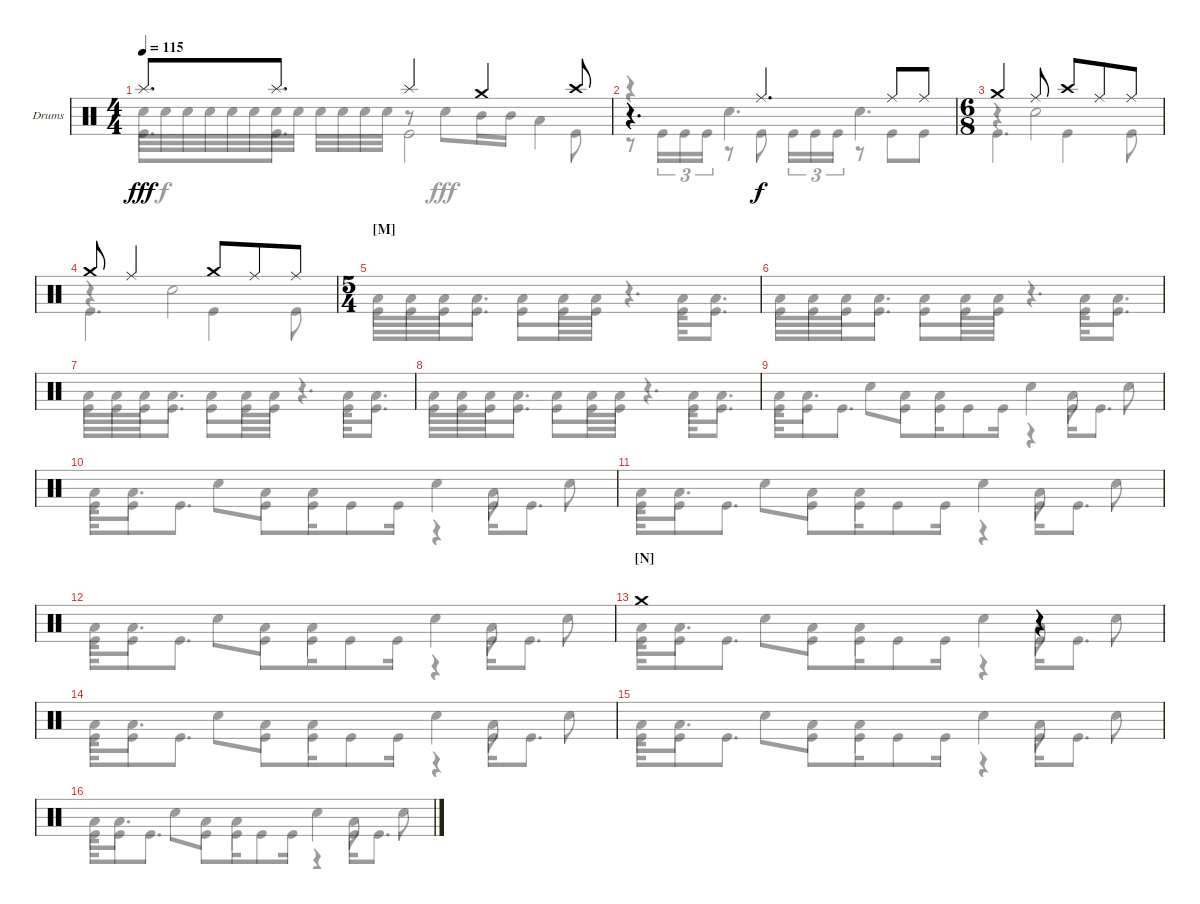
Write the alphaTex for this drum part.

\defaultSystemsLayout 4
\bracketExtendMode groupsimilarinstruments
\firstSystemTrackNameOrientation horizontal
\otherSystemsTrackNameOrientation horizontal
\track ("Drumkit" "Drums") {instrument percussion}
\staff {score}
\articulation defaults
\voice
\ts (4 4)
\tempo 115
\clef neutral
\ks c "Splash (hit)".8{d dy fff} "Splash (hit)".8{d} "Splash (hit)".4 "Crash medium (hit)".4 "Crash high (hit)".8
|
r.4{d} "Ride (middle)".4{d dy f} "Ride (middle)".8 "Ride (middle)".8 |
\ts (6 8)
"Crash medium (hit)".4 "Ride (middle)".8 "Crash high (hit)".8 "Ride (middle)".8 "Ride (middle)".8 |
"Crash medium (hit)".8 "Ride (middle)".4 "Crash medium (hit)".8 "Ride (middle)".8 "Ride (middle)".8 |
\ts (5 4)
\beaming (8 2 4 3 1)
\section ("M" "")
|
|
|
|
|
|
|
|
\section ("N" "")
"Crash medium (hit)".1 r.4 |
|
|
\voice
\clef neutral
\ottava regular
\simile none
\ks c "Snare (hit) 2".32{dy fff} "Snare (hit) 2".32{dy f} "Snare (hit) 2".32 "Snare (hit) 2".32 "Snare (hit) 2".32 "Snare (hit) 2".32 "Snare (hit) 2".32 "Snare (hit) 2".32 "Snare (hit) 2".32 "Snare (hit) 2".32 "Snare (hit) 2".32 "Snare (hit) 2".32
r.8 "Snare (hit) 2".8{dy fff} "Mid Tom (hit)".16 "Mid Tom (hit)".16 "Low Tom (hit)".4 |
r.4 "Snare (hit) 2".4{d} "Snare (hit) 2".4{d} |
r.4 "Snare (hit) 2".2 |
r.4 "Snare (hit) 2".2 |
"Low Tom (hit)".16 "Low Tom (hit)".16 "Low Tom (hit)".16 "Low Tom (hit)".8{d} "Low Tom (hit)".8 "Low Tom (hit)".16 "Low Tom (hit)".16 r.4{d} "Low Tom (hit)".16 "Low Tom (hit)".8{d} |
"Low Tom (hit)".16 "Low Tom (hit)".16 "Low Tom (hit)".16 "Low Tom (hit)".8{d} "Low Tom (hit)".8 "Low Tom (hit)".16 "Low Tom (hit)".16 r.4{d} "Low Tom (hit)".16 "Low Tom (hit)".8{d} |
"Low Tom (hit)".16 "Low Tom (hit)".16 "Low Tom (hit)".16 "Low Tom (hit)".8{d} "Low Tom (hit)".8 "Low Tom (hit)".16 "Low Tom (hit)".16 r.4{d} "Low Tom (hit)".16 "Low Tom (hit)".8{d} |
"Low Tom (hit)".16 "Low Tom (hit)".16 "Low Tom (hit)".16 "Low Tom (hit)".8{d} "Low Tom (hit)".8 "Low Tom (hit)".16 "Low Tom (hit)".16 r.4{d} "Low Tom (hit)".16 "Low Tom (hit)".8{d} |
"Low Tom (hit)".16 "Low Tom (hit)".8{d} "Snare (hit) 2".8 "Low Tom (hit)".8 "Low Tom (hit)".4 "Snare (hit) 2".4 "Low Tom (hit)".8 "Snare (hit) 2".8 |
"Low Tom (hit)".16 "Low Tom (hit)".8{d} "Snare (hit) 2".8 "Low Tom (hit)".8 "Low Tom (hit)".4 "Snare (hit) 2".4 "Low Tom (hit)".8 "Snare (hit) 2".8 |
"Low Tom (hit)".16 "Low Tom (hit)".8{d} "Snare (hit) 2".8 "Low Tom (hit)".8 "Low Tom (hit)".4 "Snare (hit) 2".4 "Low Tom (hit)".8 "Snare (hit) 2".8 |
"Low Tom (hit)".16 "Low Tom (hit)".8{d} "Snare (hit) 2".8 "Low Tom (hit)".8 "Low Tom (hit)".4 "Snare (hit) 2".4 "Low Tom (hit)".8 "Snare (hit) 2".8 |
"Low Tom (hit)".16 "Low Tom (hit)".8{d} "Snare (hit) 2".8 "Low Tom (hit)".8 "Low Tom (hit)".4 "Snare (hit) 2".4 "Low Tom (hit)".8 "Snare (hit) 2".8 |
"Low Tom (hit)".16 "Low Tom (hit)".8{d} "Snare (hit) 2".8 "Low Tom (hit)".8 "Low Tom (hit)".4 "Snare (hit) 2".4 "Low Tom (hit)".8 "Snare (hit) 2".8 |
"Low Tom (hit)".16 "Low Tom (hit)".8{d} "Snare (hit) 2".8 "Low Tom (hit)".8 "Low Tom (hit)".4 "Snare (hit) 2".4 "Low Tom (hit)".8 "Snare (hit) 2".8 |
"Low Tom (hit)".16 "Low Tom (hit)".8{d} "Snare (hit) 2".8 "Low Tom (hit)".8 "Low Tom (hit)".4 "Snare (hit) 2".4 "Low Tom (hit)".8 "Snare (hit) 2".8
\voice
\clef neutral
\ottava regular
\simile none
\ks c "Kick (hit)".8{d dy fff} "Kick (hit)".8{d} "Kick (hit)".2 "Kick (hit)".8
|
r.8 "Kick (hit)".16{tu (3 2)} "Kick (hit)".16{tu (3 2)} "Kick (hit)".16{tu (3 2)} r.8 "Kick (hit)".8 "Kick (hit)".16{tu (3 2)} "Kick (hit)".16{tu (3 2)} "Kick (hit)".16{tu (3 2)} r.8 "Kick (hit)".8 "Kick (hit)".8 |
"Kick (hit)".4{d} "Kick (hit)".4 "Kick (hit)".8 |
"Kick (hit)".4{d} "Kick (hit)".4 "Kick (hit)".8 |
"Kick (hit)".16 "Kick (hit)".16 "Kick (hit)".16 "Kick (hit)".8{d} "Kick (hit)".8 "Kick (hit)".16 "Kick (hit)".16 r.4{d} "Kick (hit)".16 "Kick (hit)".8{d} |
"Kick (hit)".16 "Kick (hit)".16 "Kick (hit)".16 "Kick (hit)".8{d} "Kick (hit)".8 "Kick (hit)".16 "Kick (hit)".16 r.4{d} "Kick (hit)".16 "Kick (hit)".8{d} |
"Kick (hit)".16 "Kick (hit)".16 "Kick (hit)".16 "Kick (hit)".8{d} "Kick (hit)".8 "Kick (hit)".16 "Kick (hit)".16 r.4{d} "Kick (hit)".16 "Kick (hit)".8{d} |
"Kick (hit)".16 "Kick (hit)".16 "Kick (hit)".16 "Kick (hit)".8{d} "Kick (hit)".8 "Kick (hit)".16 "Kick (hit)".16 r.4{d} "Kick (hit)".16 "Kick (hit)".8{d} |
"Kick (hit)".16 "Kick (hit)".8 "Kick (hit)".8{d} "Kick (hit)".8 "Kick (hit)".16 "Kick (hit)".8 "Kick (hit)".16 r.4 "Kick (hit)".16 "Kick (hit)".8{d} |
"Kick (hit)".16 "Kick (hit)".8 "Kick (hit)".8{d} "Kick (hit)".8 "Kick (hit)".16 "Kick (hit)".8 "Kick (hit)".16 r.4 "Kick (hit)".16 "Kick (hit)".8{d} |
"Kick (hit)".16 "Kick (hit)".8 "Kick (hit)".8{d} "Kick (hit)".8 "Kick (hit)".16 "Kick (hit)".8 "Kick (hit)".16 r.4 "Kick (hit)".16 "Kick (hit)".8{d} |
"Kick (hit)".16 "Kick (hit)".8 "Kick (hit)".8{d} "Kick (hit)".8 "Kick (hit)".16 "Kick (hit)".8 "Kick (hit)".16 r.4 "Kick (hit)".16 "Kick (hit)".8{d} |
"Kick (hit)".16 "Kick (hit)".8 "Kick (hit)".8{d} "Kick (hit)".8 "Kick (hit)".16 "Kick (hit)".8 "Kick (hit)".16 r.4 "Kick (hit)".16 "Kick (hit)".8{d} |
"Kick (hit)".16 "Kick (hit)".8 "Kick (hit)".8{d} "Kick (hit)".8 "Kick (hit)".16 "Kick (hit)".8 "Kick (hit)".16 r.4 "Kick (hit)".16 "Kick (hit)".8{d} |
"Kick (hit)".16 "Kick (hit)".8 "Kick (hit)".8{d} "Kick (hit)".8 "Kick (hit)".16 "Kick (hit)".8 "Kick (hit)".16 r.4 "Kick (hit)".16 "Kick (hit)".8{d} |
"Kick (hit)".16 "Kick (hit)".8 "Kick (hit)".8{d} "Kick (hit)".8 "Kick (hit)".16 "Kick (hit)".8 "Kick (hit)".16 r.4 "Kick (hit)".16 "Kick (hit)".8{d}
